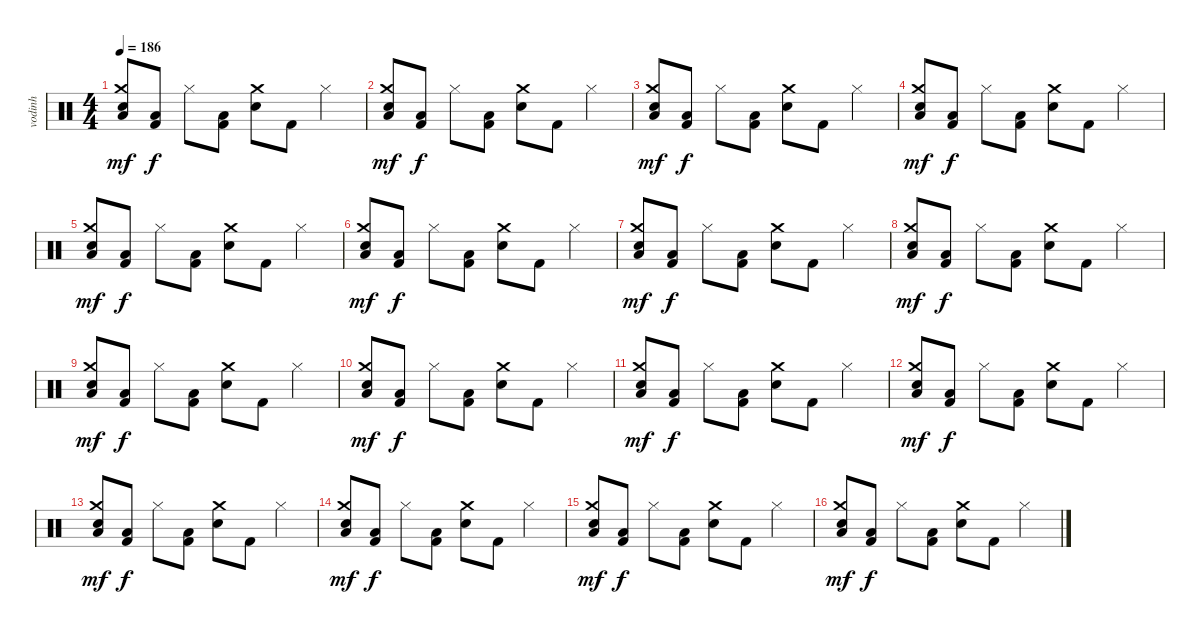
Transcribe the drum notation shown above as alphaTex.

\track ("vodinh" "vodinh") {instrument percussion}
\staff {score}
\articulation defaults
\ts (4 4)
\tempo 186
\clef neutral
\ks c
("Snare (hit) 2" "Crash medium (hit)" "Low Floor Tom (hit)").8{dy mf} ("Kick (hit) 2" "Low Floor Tom (hit)").8{dy f} "Hi-Hat (closed)".8 ("Kick (hit) 2" "Low Floor Tom (hit)").8 ("Snare (hit) 2" "Crash medium (hit)").8 "Kick (hit) 2".8 "Hi-Hat (closed)".4 |
("Snare (hit) 2" "Crash medium (hit)" "Low Floor Tom (hit)").8{dy mf} ("Kick (hit) 2" "Low Floor Tom (hit)").8{dy f} "Hi-Hat (closed)".8 ("Kick (hit) 2" "Low Floor Tom (hit)").8 ("Snare (hit) 2" "Crash medium (hit)").8 "Kick (hit) 2".8 "Hi-Hat (closed)".4 |
("Snare (hit) 2" "Crash medium (hit)" "Low Floor Tom (hit)").8{dy mf} ("Kick (hit) 2" "Low Floor Tom (hit)").8{dy f} "Hi-Hat (closed)".8 ("Kick (hit) 2" "Low Floor Tom (hit)").8 ("Snare (hit) 2" "Crash medium (hit)").8 "Kick (hit) 2".8 "Hi-Hat (closed)".4 |
("Snare (hit) 2" "Crash medium (hit)" "Low Floor Tom (hit)").8{dy mf} ("Kick (hit) 2" "Low Floor Tom (hit)").8{dy f} "Hi-Hat (closed)".8 ("Kick (hit) 2" "Low Floor Tom (hit)").8 ("Snare (hit) 2" "Crash medium (hit)").8 "Kick (hit) 2".8 "Hi-Hat (closed)".4 |
("Snare (hit) 2" "Crash medium (hit)" "Low Floor Tom (hit)").8{dy mf} ("Kick (hit) 2" "Low Floor Tom (hit)").8{dy f} "Hi-Hat (closed)".8 ("Kick (hit) 2" "Low Floor Tom (hit)").8 ("Snare (hit) 2" "Crash medium (hit)").8 "Kick (hit) 2".8 "Hi-Hat (closed)".4 |
("Snare (hit) 2" "Crash medium (hit)" "Low Floor Tom (hit)").8{dy mf} ("Kick (hit) 2" "Low Floor Tom (hit)").8{dy f} "Hi-Hat (closed)".8 ("Kick (hit) 2" "Low Floor Tom (hit)").8 ("Snare (hit) 2" "Crash medium (hit)").8 "Kick (hit) 2".8 "Hi-Hat (closed)".4 |
("Snare (hit) 2" "Crash medium (hit)" "Low Floor Tom (hit)").8{dy mf} ("Kick (hit) 2" "Low Floor Tom (hit)").8{dy f} "Hi-Hat (closed)".8 ("Kick (hit) 2" "Low Floor Tom (hit)").8 ("Snare (hit) 2" "Crash medium (hit)").8 "Kick (hit) 2".8 "Hi-Hat (closed)".4 |
("Snare (hit) 2" "Crash medium (hit)" "Low Floor Tom (hit)").8{dy mf} ("Kick (hit) 2" "Low Floor Tom (hit)").8{dy f} "Hi-Hat (closed)".8 ("Kick (hit) 2" "Low Floor Tom (hit)").8 ("Snare (hit) 2" "Crash medium (hit)").8 "Kick (hit) 2".8 "Hi-Hat (closed)".4 |
("Snare (hit) 2" "Crash medium (hit)" "Low Floor Tom (hit)").8{dy mf} ("Kick (hit) 2" "Low Floor Tom (hit)").8{dy f} "Hi-Hat (closed)".8 ("Kick (hit) 2" "Low Floor Tom (hit)").8 ("Snare (hit) 2" "Crash medium (hit)").8 "Kick (hit) 2".8 "Hi-Hat (closed)".4 |
("Snare (hit) 2" "Crash medium (hit)" "Low Floor Tom (hit)").8{dy mf} ("Kick (hit) 2" "Low Floor Tom (hit)").8{dy f} "Hi-Hat (closed)".8 ("Kick (hit) 2" "Low Floor Tom (hit)").8 ("Snare (hit) 2" "Crash medium (hit)").8 "Kick (hit) 2".8 "Hi-Hat (closed)".4 |
("Snare (hit) 2" "Crash medium (hit)" "Low Floor Tom (hit)").8{dy mf} ("Kick (hit) 2" "Low Floor Tom (hit)").8{dy f} "Hi-Hat (closed)".8 ("Kick (hit) 2" "Low Floor Tom (hit)").8 ("Snare (hit) 2" "Crash medium (hit)").8 "Kick (hit) 2".8 "Hi-Hat (closed)".4 |
("Snare (hit) 2" "Crash medium (hit)" "Low Floor Tom (hit)").8{dy mf} ("Kick (hit) 2" "Low Floor Tom (hit)").8{dy f} "Hi-Hat (closed)".8 ("Kick (hit) 2" "Low Floor Tom (hit)").8 ("Snare (hit) 2" "Crash medium (hit)").8 "Kick (hit) 2".8 "Hi-Hat (closed)".4 |
("Snare (hit) 2" "Crash medium (hit)" "Low Floor Tom (hit)").8{dy mf} ("Kick (hit) 2" "Low Floor Tom (hit)").8{dy f} "Hi-Hat (closed)".8 ("Kick (hit) 2" "Low Floor Tom (hit)").8 ("Snare (hit) 2" "Crash medium (hit)").8 "Kick (hit) 2".8 "Hi-Hat (closed)".4 |
("Snare (hit) 2" "Crash medium (hit)" "Low Floor Tom (hit)").8{dy mf} ("Kick (hit) 2" "Low Floor Tom (hit)").8{dy f} "Hi-Hat (closed)".8 ("Kick (hit) 2" "Low Floor Tom (hit)").8 ("Snare (hit) 2" "Crash medium (hit)").8 "Kick (hit) 2".8 "Hi-Hat (closed)".4 |
("Snare (hit) 2" "Crash medium (hit)" "Low Floor Tom (hit)").8{dy mf} ("Kick (hit) 2" "Low Floor Tom (hit)").8{dy f} "Hi-Hat (closed)".8 ("Kick (hit) 2" "Low Floor Tom (hit)").8 ("Snare (hit) 2" "Crash medium (hit)").8 "Kick (hit) 2".8 "Hi-Hat (closed)".4 |
("Snare (hit) 2" "Crash medium (hit)" "Low Floor Tom (hit)").8{dy mf} ("Kick (hit) 2" "Low Floor Tom (hit)").8{dy f} "Hi-Hat (closed)".8 ("Kick (hit) 2" "Low Floor Tom (hit)").8 ("Snare (hit) 2" "Crash medium (hit)").8 "Kick (hit) 2".8 "Hi-Hat (closed)".4
